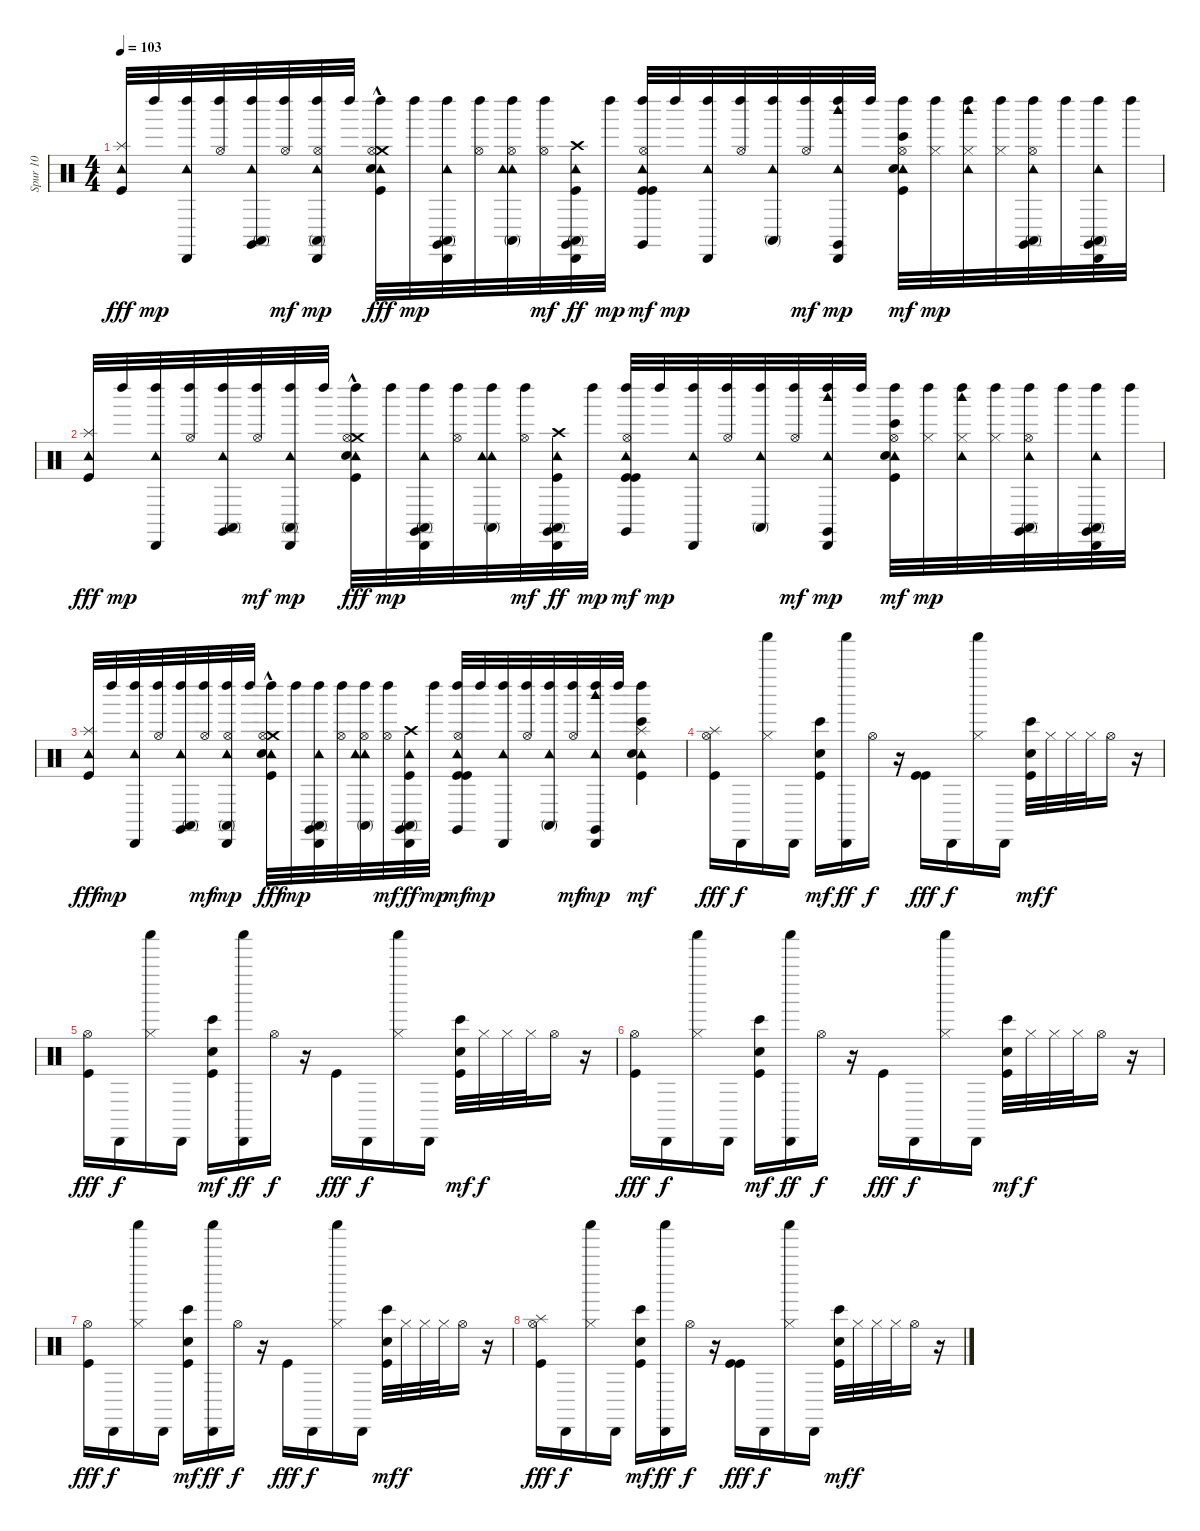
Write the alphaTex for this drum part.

\track ("Spur 10" "Spur 10") {instrument percussion}
\staff {score}
\articulation defaults
\ts (4 4)
\tempo 103
\clef neutral
\ks c
("Tambourine (hit)" "Kick (hit)" "Splash (hit)").32{dy fff} "Left Maraca (hit)".32{dy mp} ("Tambourine (hit)" "Cabasa (hit)" "Left Maraca (hit)").32 ("Hi-Hat (open)" "Left Maraca (hit)").32 ("Claves (hit)" "Tambourine (hit)" "Conga high (mute)" "Left Maraca (hit)").32 ("Left Maraca (hit)" "Hi-Hat (open)").32{dy mf} ("Hi-Hat (open)" "Tambourine (hit)" "Cabasa (hit)" "Conga high (mute)" "Left Maraca (hit)").32{dy mp} "Left Maraca (hit)".32 ("Crash medium (hit)" "Tambourine (hit)" "Kick (hit)"{hac} "Left Maraca (hit)" "Hi-Hat (open)" "Electric Snare (hit)").32{dy fff} "Left Maraca (hit)".32{dy mp} ("Claves (hit)" "Tambourine (hit)" "Cabasa (hit)" "Conga high (mute)" "Left Maraca (hit)").32 ("Hi-Hat (open)" "Left Maraca (hit)").32 ("Hi-Hat (open)" "Tambourine (hit)" "Tambourine (hit)" "Conga high (mute)" "Left Maraca (hit)").32 ("Left Maraca (hit)" "Hi-Hat (open)").32{dy mf} ("Claves (hit)" "Kick (hit)" "Crash high (hit)" "Tambourine (hit)" "Cabasa (hit)" "Conga high (mute)").32{dy ff} "Left Maraca (hit)".32{dy mp} ("Claves (hit)" "Tambourine (hit)" "Kick (hit)" "Kick (hit)" "Left Maraca (hit)" "Hi-Hat (open)").32{dy mf} "Left Maraca (hit)".32{dy mp} ("Cabasa (hit)" "Tambourine (hit)" "Left Maraca (hit)").32 ("Hi-Hat (open)" "Left Maraca (hit)").32 ("Tambourine (hit)" "Conga high (mute)" "Left Maraca (hit)").32 ("Left Maraca (hit)" "Hi-Hat (open)").32{dy mf} ("Claves (hit)" "Cabasa (hit)" "Tambourine (hit)" "Woodblock high (hit)" "Left Maraca (hit)").32{dy mp} "Left Maraca (hit)".32 ("Tambourine (hit)" "Kick (hit)" "Left Maraca (hit)" "Hi-Hat (open)" "Electric Snare (hit)" "Bongo High (hit)").32{dy mf} ("Hi-Hat (closed)" "Left Maraca (hit)").32{dy mp} ("Hi-Hat (closed)" "Tambourine (hit)" "Woodblock high (hit)" "Left Maraca (hit)").32 ("Hi-Hat (closed)" "Left Maraca (hit)").32 ("Hi-Hat (open)" "Claves (hit)" "Tambourine (hit)" "Conga high (mute)" "Left Maraca (hit)").32 "Left Maraca (hit)".32 ("Claves (hit)" "Tambourine (hit)" "Cabasa (hit)" "Conga high (mute)" "Left Maraca (hit)").32 "Left Maraca (hit)".32 |
("Tambourine (hit)" "Kick (hit)" "Splash (hit)").32{dy fff} "Left Maraca (hit)".32{dy mp} ("Tambourine (hit)" "Cabasa (hit)" "Left Maraca (hit)").32 ("Hi-Hat (open)" "Left Maraca (hit)").32 ("Claves (hit)" "Tambourine (hit)" "Conga high (mute)" "Left Maraca (hit)").32 ("Left Maraca (hit)" "Hi-Hat (open)").32{dy mf} ("Tambourine (hit)" "Cabasa (hit)" "Conga high (mute)" "Left Maraca (hit)").32{dy mp} "Left Maraca (hit)".32 ("Crash medium (hit)" "Tambourine (hit)" "Kick (hit)"{hac} "Left Maraca (hit)" "Hi-Hat (open)" "Electric Snare (hit)").32{dy fff} "Left Maraca (hit)".32{dy mp} ("Claves (hit)" "Tambourine (hit)" "Cabasa (hit)" "Conga high (mute)" "Left Maraca (hit)").32 ("Hi-Hat (open)" "Left Maraca (hit)").32 ("Tambourine (hit)" "Tambourine (hit)" "Conga high (mute)" "Left Maraca (hit)").32 ("Left Maraca (hit)" "Hi-Hat (open)").32{dy mf} ("Claves (hit)" "Kick (hit)" "Crash high (hit)" "Tambourine (hit)" "Cabasa (hit)" "Conga high (mute)").32{dy ff} "Left Maraca (hit)".32{dy mp} ("Claves (hit)" "Tambourine (hit)" "Kick (hit)" "Kick (hit)" "Left Maraca (hit)" "Hi-Hat (open)").32{dy mf} "Left Maraca (hit)".32{dy mp} ("Cabasa (hit)" "Tambourine (hit)" "Left Maraca (hit)").32 ("Hi-Hat (open)" "Left Maraca (hit)").32 ("Tambourine (hit)" "Conga high (mute)" "Left Maraca (hit)").32 ("Left Maraca (hit)" "Hi-Hat (open)").32{dy mf} ("Claves (hit)" "Cabasa (hit)" "Tambourine (hit)" "Woodblock high (hit)" "Left Maraca (hit)").32{dy mp} "Left Maraca (hit)".32 ("Tambourine (hit)" "Kick (hit)" "Left Maraca (hit)" "Hi-Hat (open)" "Electric Snare (hit)" "Bongo High (hit)").32{dy mf} ("Hi-Hat (closed)" "Left Maraca (hit)").32{dy mp} ("Hi-Hat (closed)" "Tambourine (hit)" "Woodblock high (hit)" "Left Maraca (hit)").32 ("Hi-Hat (closed)" "Left Maraca (hit)").32 ("Hi-Hat (open)" "Claves (hit)" "Tambourine (hit)" "Conga high (mute)" "Left Maraca (hit)").32 "Left Maraca (hit)".32 ("Claves (hit)" "Tambourine (hit)" "Cabasa (hit)" "Conga high (mute)" "Left Maraca (hit)").32 "Left Maraca (hit)".32 |
("Tambourine (hit)" "Kick (hit)" "Splash (hit)").32{dy fff} "Left Maraca (hit)".32{dy mp} ("Tambourine (hit)" "Cabasa (hit)" "Left Maraca (hit)").32 ("Hi-Hat (open)" "Left Maraca (hit)").32 ("Claves (hit)" "Tambourine (hit)" "Conga high (mute)" "Left Maraca (hit)").32 ("Left Maraca (hit)" "Hi-Hat (open)").32{dy mf} ("Hi-Hat (open)" "Tambourine (hit)" "Cabasa (hit)" "Conga high (mute)" "Left Maraca (hit)").32{dy mp} "Left Maraca (hit)".32 ("Crash medium (hit)" "Tambourine (hit)" "Kick (hit)"{hac} "Left Maraca (hit)" "Hi-Hat (open)" "Electric Snare (hit)").32{dy fff} "Left Maraca (hit)".32{dy mp} ("Claves (hit)" "Tambourine (hit)" "Cabasa (hit)" "Conga high (mute)" "Left Maraca (hit)").32 ("Hi-Hat (open)" "Left Maraca (hit)").32 ("Hi-Hat (open)" "Tambourine (hit)" "Tambourine (hit)" "Conga high (mute)" "Left Maraca (hit)").32 ("Left Maraca (hit)" "Hi-Hat (open)").32{dy mf} ("Claves (hit)" "Kick (hit)" "Crash high (hit)" "Tambourine (hit)" "Cabasa (hit)" "Conga high (mute)").32{dy ff} "Left Maraca (hit)".32{dy mp} ("Claves (hit)" "Tambourine (hit)" "Kick (hit)" "Kick (hit)" "Left Maraca (hit)" "Hi-Hat (open)").32{dy mf} "Left Maraca (hit)".32{dy mp} ("Cabasa (hit)" "Tambourine (hit)" "Left Maraca (hit)").32 ("Hi-Hat (open)" "Left Maraca (hit)").32 ("Tambourine (hit)" "Conga high (mute)" "Left Maraca (hit)").32 ("Left Maraca (hit)" "Hi-Hat (open)").32{dy mf} ("Claves (hit)" "Cabasa (hit)" "Tambourine (hit)" "Woodblock high (hit)" "Left Maraca (hit)").32{dy mp} "Left Maraca (hit)".32 ("Tambourine (hit)" "Kick (hit)" "Left Maraca (hit)" "Splash (hit)" "Electric Snare (hit)" "Bongo High (hit)").4{dy mf} |
("Hi-Hat (open)" "Splash (hit)" "Kick (hit)").16{dy fff} "Cabasa (hit)".16{dy f} ("Shaker (hit)" "Hi-Hat (closed)").16 "Cabasa (hit)".16 ("Kick (hit)" "Electric Snare (hit)" "Bongo High (hit)").16{dy mf} ("Cabasa (hit)" "Shaker (hit)").16{dy ff} "Hi-Hat (open)".16{dy f} r.16 ("Kick (hit)" "Kick (hit)").16{dy fff} "Cabasa (hit)".16{dy f} ("Hi-Hat (closed)" "Shaker (hit)").16 "Cabasa (hit)".16 ("Kick (hit)" "Electric Snare (hit)" "Bongo High (hit)").32{dy mf} "Hi-Hat (closed)".32{dy f} "Hi-Hat (closed)".32 "Hi-Hat (closed)".32 "Hi-Hat (open)".16 r.16 |
("Hi-Hat (open)" "Kick (hit)").16{dy fff} "Cabasa (hit)".16{dy f} ("Shaker (hit)" "Hi-Hat (closed)").16 "Cabasa (hit)".16 ("Kick (hit)" "Electric Snare (hit)" "Bongo High (hit)").16{dy mf} ("Cabasa (hit)" "Shaker (hit)").16{dy ff} "Hi-Hat (open)".16{dy f} r.16 "Kick (hit)".16{dy fff} "Cabasa (hit)".16{dy f} ("Hi-Hat (closed)" "Shaker (hit)").16 "Cabasa (hit)".16 ("Kick (hit)" "Electric Snare (hit)" "Bongo High (hit)").32{dy mf} "Hi-Hat (closed)".32{dy f} "Hi-Hat (closed)".32 "Hi-Hat (closed)".32 "Hi-Hat (open)".16 r.16 |
("Hi-Hat (open)" "Kick (hit)").16{dy fff} "Cabasa (hit)".16{dy f} ("Shaker (hit)" "Hi-Hat (closed)").16 "Cabasa (hit)".16 ("Kick (hit)" "Electric Snare (hit)" "Bongo High (hit)").16{dy mf} ("Cabasa (hit)" "Shaker (hit)").16{dy ff} "Hi-Hat (open)".16{dy f} r.16 "Kick (hit)".16{dy fff} "Cabasa (hit)".16{dy f} ("Hi-Hat (closed)" "Shaker (hit)").16 "Cabasa (hit)".16 ("Kick (hit)" "Electric Snare (hit)" "Bongo High (hit)").32{dy mf} "Hi-Hat (closed)".32{dy f} "Hi-Hat (closed)".32 "Hi-Hat (closed)".32 "Hi-Hat (open)".16 r.16 |
("Hi-Hat (open)" "Kick (hit)").16{dy fff} "Cabasa (hit)".16{dy f} ("Shaker (hit)" "Hi-Hat (closed)").16 "Cabasa (hit)".16 ("Kick (hit)" "Electric Snare (hit)" "Bongo High (hit)").16{dy mf} ("Cabasa (hit)" "Shaker (hit)").16{dy ff} "Hi-Hat (open)".16{dy f} r.16 "Kick (hit)".16{dy fff} "Cabasa (hit)".16{dy f} ("Hi-Hat (closed)" "Shaker (hit)").16 "Cabasa (hit)".16 ("Kick (hit)" "Electric Snare (hit)" "Bongo High (hit)").32{dy mf} "Hi-Hat (closed)".32{dy f} "Hi-Hat (closed)".32 "Hi-Hat (closed)".32 "Hi-Hat (open)".16 r.16 |
("Hi-Hat (open)" "Splash (hit)" "Kick (hit)").16{dy fff} "Cabasa (hit)".16{dy f} ("Shaker (hit)" "Hi-Hat (closed)").16 "Cabasa (hit)".16 ("Kick (hit)" "Electric Snare (hit)" "Bongo High (hit)").16{dy mf} ("Cabasa (hit)" "Shaker (hit)").16{dy ff} "Hi-Hat (open)".16{dy f} r.16 ("Kick (hit)" "Kick (hit)").16{dy fff} "Cabasa (hit)".16{dy f} ("Hi-Hat (closed)" "Shaker (hit)").16 "Cabasa (hit)".16 ("Kick (hit)" "Electric Snare (hit)" "Bongo High (hit)").32{dy mf} "Hi-Hat (closed)".32{dy f} "Hi-Hat (closed)".32 "Hi-Hat (closed)".32 "Hi-Hat (open)".16 r.16
